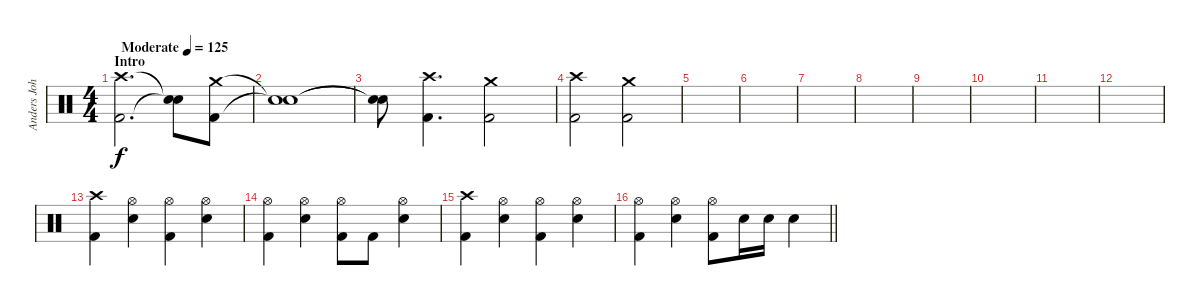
\track ("Anders Johansson" "Anders Joh") {instrument percussion}
\staff {score}
\articulation defaults
\ts (4 4)
\section ("" "Intro")
\tempo (125 "Moderate")
\clef neutral
\ks c
("Crash high (hit)" "Kick (hit) 2").2{d dy f} ("Snare (hit)"{t} "Snare (hit)"{t}).8 ("Crash medium (hit)" "Kick (hit) 2").8 |
("Snare (hit)"{t} "Snare (hit)"{t}).1 |
("Snare (hit)"{t} "Snare (hit)"{t}).8 ("Crash high (hit)" "Kick (hit) 2").4{d} ("Crash medium (hit)" "Kick (hit) 2").2 |
("Crash high (hit)" "Kick (hit) 2").2 ("Crash medium (hit)" "Kick (hit) 2").2 |
|
|
|
|
|
|
|
|
("Kick (hit) 2" "Crash high (hit)").4 ("Electric Snare (hit)" "Hi-Hat (open)").4 ("Kick (hit) 2" "Hi-Hat (open)").4 ("Electric Snare (hit)" "Hi-Hat (open)").4 |
("Kick (hit) 2" "Hi-Hat (open)").4 ("Electric Snare (hit)" "Hi-Hat (open)").4 ("Kick (hit) 2" "Hi-Hat (open)").8 "Kick (hit) 2".8 ("Hi-Hat (open)" "Electric Snare (hit)").4 |
("Kick (hit) 2" "Crash high (hit)").4 ("Electric Snare (hit)" "Hi-Hat (open)").4 ("Kick (hit) 2" "Hi-Hat (open)").4 ("Electric Snare (hit)" "Hi-Hat (open)").4 |
\barLineRight lightlight
("Kick (hit) 2" "Hi-Hat (open)").4 ("Electric Snare (hit)" "Hi-Hat (open)").4 ("Kick (hit) 2" "Hi-Hat (open)").8 "Electric Snare (hit)".16 "Electric Snare (hit)".16 "Electric Snare (hit)".4
